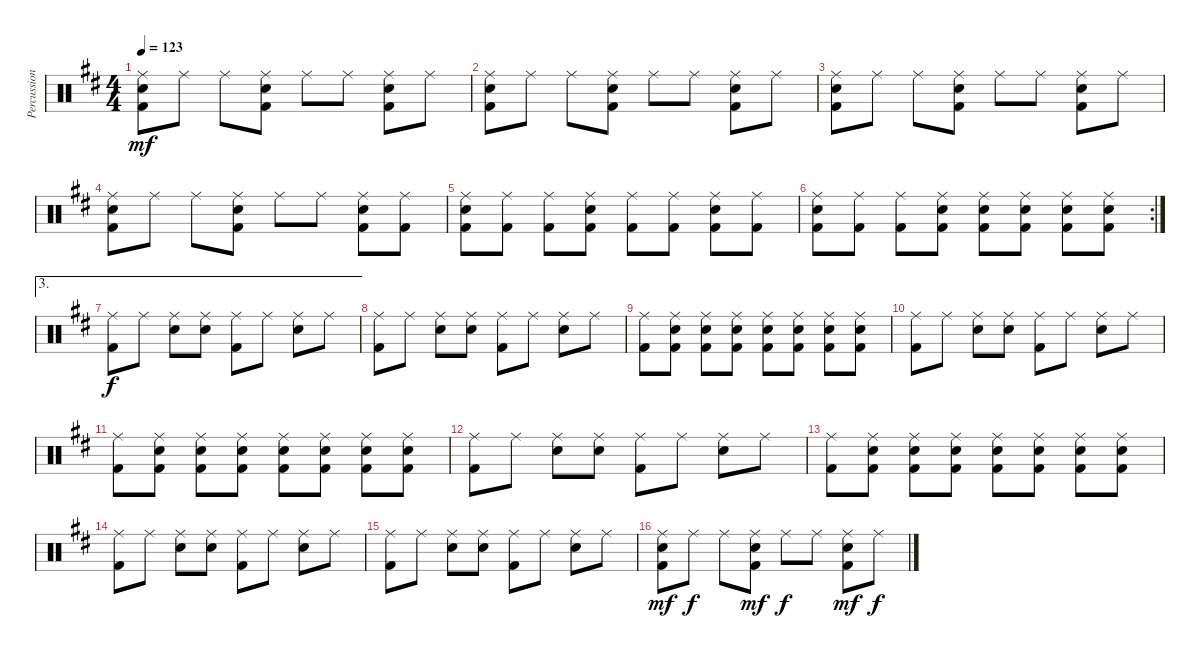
\track ("Percussion" "Percussion") {instrument percussion}
\staff {score}
\articulation defaults
\ts (4 4)
\tempo 123
\clef neutral
\ks d
("Ride (middle)" "Kick (hit) 2" "Snare (hit) 2").8{dy mf} "Ride (middle)".8 "Ride (middle)".8 ("Ride (middle)" "Kick (hit) 2" "Snare (hit) 2").8 "Ride (middle)".8 "Ride (middle)".8 ("Ride (middle)" "Kick (hit) 2" "Snare (hit) 2").8 "Ride (middle)".8 |
("Ride (middle)" "Kick (hit) 2" "Snare (hit) 2").8 "Ride (middle)".8 "Ride (middle)".8 ("Ride (middle)" "Kick (hit) 2" "Snare (hit) 2").8 "Ride (middle)".8 "Ride (middle)".8 ("Ride (middle)" "Kick (hit) 2" "Snare (hit) 2").8 "Ride (middle)".8 |
("Ride (middle)" "Kick (hit) 2" "Snare (hit) 2").8 "Ride (middle)".8 "Ride (middle)".8 ("Ride (middle)" "Kick (hit) 2" "Snare (hit) 2").8 "Ride (middle)".8 "Ride (middle)".8 ("Ride (middle)" "Kick (hit) 2" "Snare (hit) 2").8 "Ride (middle)".8 |
("Ride (middle)" "Kick (hit) 2" "Snare (hit) 2").8 "Ride (middle)".8 "Ride (middle)".8 ("Ride (middle)" "Kick (hit) 2" "Snare (hit) 2").8 "Ride (middle)".8 "Ride (middle)".8 ("Ride (middle)" "Kick (hit) 2" "Snare (hit) 2").8 ("Ride (middle)" "Kick (hit) 2").8 |
("Ride (middle)" "Kick (hit) 2" "Snare (hit) 2").8 ("Ride (middle)" "Kick (hit) 2").8 ("Ride (middle)" "Kick (hit) 2").8 ("Ride (middle)" "Kick (hit) 2" "Snare (hit) 2").8 ("Ride (middle)" "Kick (hit) 2").8 ("Ride (middle)" "Kick (hit) 2").8 ("Ride (middle)" "Kick (hit) 2" "Snare (hit) 2").8 ("Ride (middle)" "Kick (hit) 2").8 |
\rc 2
("Ride (middle)" "Kick (hit) 2" "Snare (hit) 2").8 ("Ride (middle)" "Kick (hit) 2").8 ("Ride (middle)" "Kick (hit) 2").8 ("Ride (middle)" "Kick (hit) 2" "Snare (hit) 2").8 ("Ride (middle)" "Kick (hit) 2" "Snare (hit) 2").8 ("Ride (middle)" "Kick (hit) 2" "Snare (hit) 2").8 ("Ride (middle)" "Kick (hit) 2" "Snare (hit) 2").8 ("Ride (middle)" "Kick (hit) 2" "Snare (hit) 2").8 |
\ae 3
("Ride (middle)" "Kick (hit) 2").8{dy f} "Ride (middle)".8 ("Ride (middle)" "Snare (hit) 2").8 ("Ride (middle)" "Snare (hit) 2").8 ("Ride (middle)" "Kick (hit) 2").8 "Ride (middle)".8 ("Ride (middle)" "Snare (hit) 2").8 "Ride (middle)".8 |
("Ride (middle)" "Kick (hit) 2").8 "Ride (middle)".8 ("Ride (middle)" "Snare (hit) 2").8 ("Ride (middle)" "Snare (hit) 2").8 ("Ride (middle)" "Kick (hit) 2").8 "Ride (middle)".8 ("Ride (middle)" "Snare (hit) 2").8 "Ride (middle)".8 |
("Ride (middle)" "Kick (hit) 2").8 ("Ride (middle)" "Snare (hit) 2" "Kick (hit) 2").8 ("Ride (middle)" "Snare (hit) 2" "Kick (hit) 2").8 ("Ride (middle)" "Snare (hit) 2" "Kick (hit) 2").8 ("Ride (middle)" "Snare (hit) 2" "Kick (hit) 2").8 ("Ride (middle)" "Snare (hit) 2" "Kick (hit) 2").8 ("Ride (middle)" "Snare (hit) 2" "Kick (hit) 2").8 ("Ride (middle)" "Snare (hit) 2" "Kick (hit) 2").8 |
("Ride (middle)" "Kick (hit) 2").8 "Ride (middle)".8 ("Ride (middle)" "Snare (hit) 2").8 ("Ride (middle)" "Snare (hit) 2").8 ("Ride (middle)" "Kick (hit) 2").8 "Ride (middle)".8 ("Ride (middle)" "Snare (hit) 2").8 "Ride (middle)".8 |
("Ride (middle)" "Kick (hit) 2").8 ("Ride (middle)" "Snare (hit) 2" "Kick (hit) 2").8 ("Ride (middle)" "Snare (hit) 2" "Kick (hit) 2").8 ("Ride (middle)" "Snare (hit) 2" "Kick (hit) 2").8 ("Ride (middle)" "Snare (hit) 2" "Kick (hit) 2").8 ("Ride (middle)" "Snare (hit) 2" "Kick (hit) 2").8 ("Ride (middle)" "Snare (hit) 2" "Kick (hit) 2").8 ("Ride (middle)" "Snare (hit) 2" "Kick (hit) 2").8 |
("Ride (middle)" "Kick (hit) 2").8 "Ride (middle)".8 ("Ride (middle)" "Snare (hit) 2").8 ("Ride (middle)" "Snare (hit) 2").8 ("Ride (middle)" "Kick (hit) 2").8 "Ride (middle)".8 ("Ride (middle)" "Snare (hit) 2").8 "Ride (middle)".8 |
("Ride (middle)" "Kick (hit) 2").8 ("Ride (middle)" "Snare (hit) 2" "Kick (hit) 2").8 ("Ride (middle)" "Snare (hit) 2" "Kick (hit) 2").8 ("Ride (middle)" "Snare (hit) 2" "Kick (hit) 2").8 ("Ride (middle)" "Snare (hit) 2" "Kick (hit) 2").8 ("Ride (middle)" "Snare (hit) 2" "Kick (hit) 2").8 ("Ride (middle)" "Snare (hit) 2" "Kick (hit) 2").8 ("Ride (middle)" "Snare (hit) 2" "Kick (hit) 2").8 |
("Ride (middle)" "Kick (hit) 2").8 "Ride (middle)".8 ("Ride (middle)" "Snare (hit) 2").8 ("Ride (middle)" "Snare (hit) 2").8 ("Ride (middle)" "Kick (hit) 2").8 "Ride (middle)".8 ("Ride (middle)" "Snare (hit) 2").8 "Ride (middle)".8 |
("Ride (middle)" "Kick (hit) 2").8 "Ride (middle)".8 ("Ride (middle)" "Snare (hit) 2").8 ("Ride (middle)" "Snare (hit) 2").8 ("Ride (middle)" "Kick (hit) 2").8 "Ride (middle)".8 ("Ride (middle)" "Snare (hit) 2").8 "Ride (middle)".8 |
("Ride (middle)" "Kick (hit) 2" "Snare (hit) 2").8{dy mf} "Ride (middle)".8{dy f} "Ride (middle)".8 ("Ride (middle)" "Kick (hit) 2" "Snare (hit) 2").8{dy mf} "Ride (middle)".8{dy f} "Ride (middle)".8 ("Ride (middle)" "Kick (hit) 2" "Snare (hit) 2").8{dy mf} "Ride (middle)".8{dy f}
